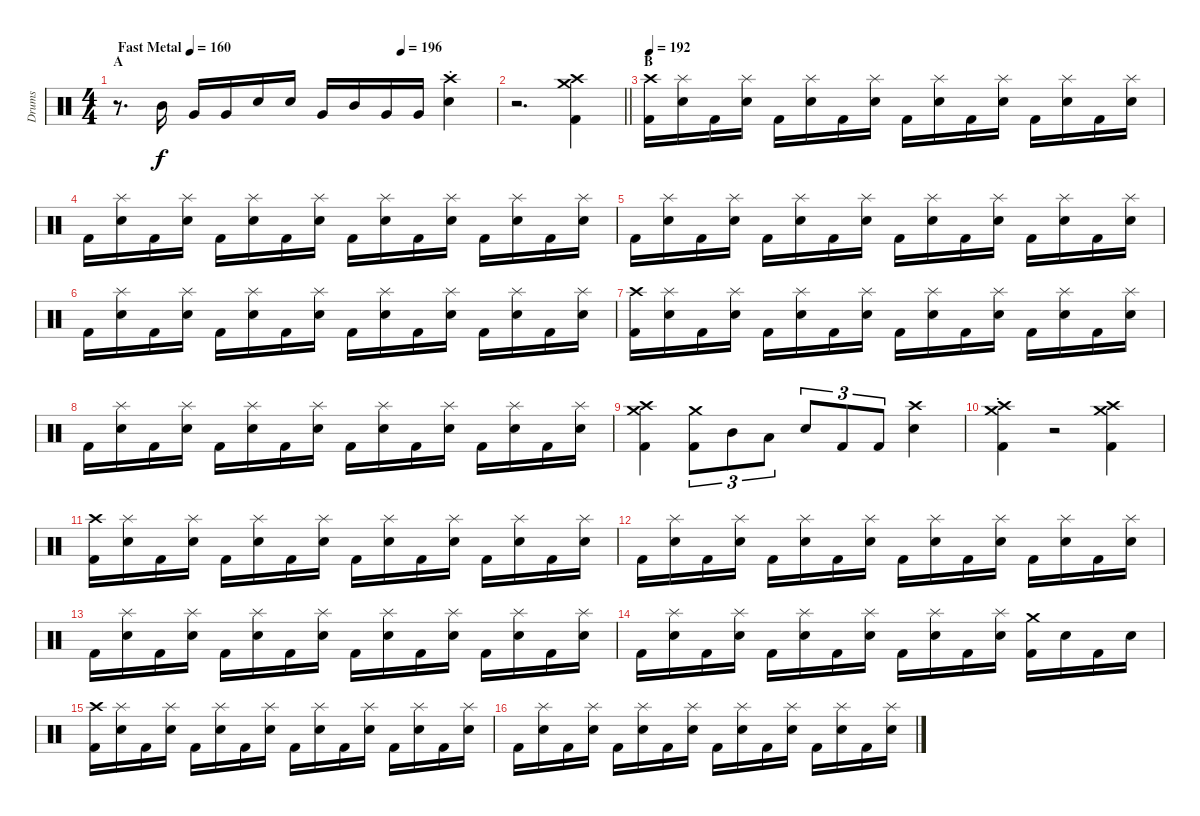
\track ("Drums" "Drums") {instrument percussion}
\staff {score}
\articulation defaults
\ts (4 4)
\section ("" "A")
\tempo (160 "Fast Metal")
\tempo (196 0.75)
\tempo (160 "Fast Metal")
\clef neutral
\ks c
r.8{d dy f} "Mid Tom (hit)".16 "Very Low Tom (hit)".16 "Very Low Tom (hit)".16 "Electric Snare (hit)".16 "Electric Snare (hit)".16 "Very Low Tom (hit)".16 "Mid Tom (hit)".16 "Very Low Tom (hit)".16 "Very Low Tom (hit)".16 ("Crash high (hit)"{st} "Electric Snare (hit)").4 |
\barLineRight lightlight
r.2{d volume 0} ("Crash medium (hit)" "Crash high (hit)" "Kick (hit) 2").4{volume 14} |
\section ("" "B")
\tempo 192
("Crash high (hit)" "Kick (hit) 2").16 ("Splash (hit)" "Electric Snare (hit)").16 "Kick (hit) 2".16 ("Splash (hit)" "Electric Snare (hit)").16 "Kick (hit) 2".16 ("Splash (hit)" "Electric Snare (hit)").16 "Kick (hit) 2".16 ("Splash (hit)" "Electric Snare (hit)").16 "Kick (hit) 2".16 ("Splash (hit)" "Electric Snare (hit)").16 "Kick (hit) 2".16 ("Splash (hit)" "Electric Snare (hit)").16 "Kick (hit) 2".16 ("Splash (hit)" "Electric Snare (hit)").16 "Kick (hit) 2".16 ("Splash (hit)" "Electric Snare (hit)").16 |
"Kick (hit) 2".16 ("Splash (hit)" "Electric Snare (hit)").16 "Kick (hit) 2".16 ("Splash (hit)" "Electric Snare (hit)").16 "Kick (hit) 2".16 ("Splash (hit)" "Electric Snare (hit)").16 "Kick (hit) 2".16 ("Splash (hit)" "Electric Snare (hit)").16 "Kick (hit) 2".16 ("Splash (hit)" "Electric Snare (hit)").16 "Kick (hit) 2".16 ("Splash (hit)" "Electric Snare (hit)").16 "Kick (hit) 2".16 ("Splash (hit)" "Electric Snare (hit)").16 "Kick (hit) 2".16 ("Splash (hit)" "Electric Snare (hit)").16 |
"Kick (hit) 2".16 ("Splash (hit)" "Electric Snare (hit)").16 "Kick (hit) 2".16 ("Splash (hit)" "Electric Snare (hit)").16 "Kick (hit) 2".16 ("Splash (hit)" "Electric Snare (hit)").16 "Kick (hit) 2".16 ("Splash (hit)" "Electric Snare (hit)").16 "Kick (hit) 2".16 ("Splash (hit)" "Electric Snare (hit)").16 "Kick (hit) 2".16 ("Splash (hit)" "Electric Snare (hit)").16 "Kick (hit) 2".16 ("Splash (hit)" "Electric Snare (hit)").16 "Kick (hit) 2".16 ("Splash (hit)" "Electric Snare (hit)").16 |
"Kick (hit) 2".16 ("Splash (hit)" "Electric Snare (hit)").16 "Kick (hit) 2".16 ("Splash (hit)" "Electric Snare (hit)").16 "Kick (hit) 2".16 ("Splash (hit)" "Electric Snare (hit)").16 "Kick (hit) 2".16 ("Splash (hit)" "Electric Snare (hit)").16 "Kick (hit) 2".16 ("Splash (hit)" "Electric Snare (hit)").16 "Kick (hit) 2".16 ("Splash (hit)" "Electric Snare (hit)").16 "Kick (hit) 2".16 ("Splash (hit)" "Electric Snare (hit)").16 "Kick (hit) 2".16 ("Splash (hit)" "Electric Snare (hit)").16 |
("Crash high (hit)" "Kick (hit) 2").16 ("Splash (hit)" "Electric Snare (hit)").16 "Kick (hit) 2".16 ("Splash (hit)" "Electric Snare (hit)").16 "Kick (hit) 2".16 ("Splash (hit)" "Electric Snare (hit)").16 "Kick (hit) 2".16 ("Splash (hit)" "Electric Snare (hit)").16 "Kick (hit) 2".16 ("Splash (hit)" "Electric Snare (hit)").16 "Kick (hit) 2".16 ("Splash (hit)" "Electric Snare (hit)").16 "Kick (hit) 2".16 ("Splash (hit)" "Electric Snare (hit)").16 "Kick (hit) 2".16 ("Splash (hit)" "Electric Snare (hit)").16 |
"Kick (hit) 2".16 ("Splash (hit)" "Electric Snare (hit)").16 "Kick (hit) 2".16 ("Splash (hit)" "Electric Snare (hit)").16 "Kick (hit) 2".16 ("Splash (hit)" "Electric Snare (hit)").16 "Kick (hit) 2".16 ("Splash (hit)" "Electric Snare (hit)").16 "Kick (hit) 2".16 ("Splash (hit)" "Electric Snare (hit)").16 "Kick (hit) 2".16 ("Splash (hit)" "Electric Snare (hit)").16 "Kick (hit) 2".16 ("Splash (hit)" "Electric Snare (hit)").16 "Kick (hit) 2".16 ("Splash (hit)" "Electric Snare (hit)").16 |
("Crash medium (hit)" "Crash high (hit)" "Kick (hit) 2").4 ("Crash medium (hit)" "Kick (hit) 2").8{tu (3 2)} "Mid Tom (hit)".8{tu (3 2)} "Low Tom (hit)".8{tu (3 2)} "Electric Snare (hit)".8{tu (3 2)} "Kick (hit) 2".8{tu (3 2)} "Kick (hit) 2".8{tu (3 2)} ("Crash high (hit)" "Electric Snare (hit)").4 |
("Crash medium (hit)"{st} "Crash high (hit)" "Kick (hit) 2").4 r.2{volume 0} ("Crash medium (hit)" "Crash high (hit)" "Kick (hit) 2").4{volume 14} |
("Crash high (hit)" "Kick (hit) 2").16 ("Splash (hit)" "Electric Snare (hit)").16 "Kick (hit) 2".16 ("Splash (hit)" "Electric Snare (hit)").16 "Kick (hit) 2".16 ("Splash (hit)" "Electric Snare (hit)").16 "Kick (hit) 2".16 ("Splash (hit)" "Electric Snare (hit)").16 "Kick (hit) 2".16 ("Splash (hit)" "Electric Snare (hit)").16 "Kick (hit) 2".16 ("Splash (hit)" "Electric Snare (hit)").16 "Kick (hit) 2".16 ("Splash (hit)" "Electric Snare (hit)").16 "Kick (hit) 2".16 ("Splash (hit)" "Electric Snare (hit)").16 |
"Kick (hit) 2".16 ("Splash (hit)" "Electric Snare (hit)").16 "Kick (hit) 2".16 ("Splash (hit)" "Electric Snare (hit)").16 "Kick (hit) 2".16 ("Splash (hit)" "Electric Snare (hit)").16 "Kick (hit) 2".16 ("Splash (hit)" "Electric Snare (hit)").16 "Kick (hit) 2".16 ("Splash (hit)" "Electric Snare (hit)").16 "Kick (hit) 2".16 ("Splash (hit)" "Electric Snare (hit)").16 "Kick (hit) 2".16 ("Splash (hit)" "Electric Snare (hit)").16 "Kick (hit) 2".16 ("Splash (hit)" "Electric Snare (hit)").16 |
"Kick (hit) 2".16 ("Splash (hit)" "Electric Snare (hit)").16 "Kick (hit) 2".16 ("Splash (hit)" "Electric Snare (hit)").16 "Kick (hit) 2".16 ("Splash (hit)" "Electric Snare (hit)").16 "Kick (hit) 2".16 ("Splash (hit)" "Electric Snare (hit)").16 "Kick (hit) 2".16 ("Splash (hit)" "Electric Snare (hit)").16 "Kick (hit) 2".16 ("Splash (hit)" "Electric Snare (hit)").16 "Kick (hit) 2".16 ("Splash (hit)" "Electric Snare (hit)").16 "Kick (hit) 2".16 ("Splash (hit)" "Electric Snare (hit)").16 |
"Kick (hit) 2".16 ("Splash (hit)" "Electric Snare (hit)").16 "Kick (hit) 2".16 ("Splash (hit)" "Electric Snare (hit)").16 "Kick (hit) 2".16 ("Splash (hit)" "Electric Snare (hit)").16 "Kick (hit) 2".16 ("Splash (hit)" "Electric Snare (hit)").16 "Kick (hit) 2".16 ("Splash (hit)" "Electric Snare (hit)").16 "Kick (hit) 2".16 ("Splash (hit)" "Electric Snare (hit)").16 ("Crash medium (hit)" "Kick (hit) 2").16 "Electric Snare (hit)".16 "Kick (hit) 2".16 "Electric Snare (hit)".16 |
("Crash high (hit)" "Kick (hit) 2").16 ("Splash (hit)" "Electric Snare (hit)").16 "Kick (hit) 2".16 ("Splash (hit)" "Electric Snare (hit)").16 "Kick (hit) 2".16 ("Splash (hit)" "Electric Snare (hit)").16 "Kick (hit) 2".16 ("Splash (hit)" "Electric Snare (hit)").16 "Kick (hit) 2".16 ("Splash (hit)" "Electric Snare (hit)").16 "Kick (hit) 2".16 ("Splash (hit)" "Electric Snare (hit)").16 "Kick (hit) 2".16 ("Splash (hit)" "Electric Snare (hit)").16 "Kick (hit) 2".16 ("Splash (hit)" "Electric Snare (hit)").16 |
"Kick (hit) 2".16 ("Splash (hit)" "Electric Snare (hit)").16 "Kick (hit) 2".16 ("Splash (hit)" "Electric Snare (hit)").16 "Kick (hit) 2".16 ("Splash (hit)" "Electric Snare (hit)").16 "Kick (hit) 2".16 ("Splash (hit)" "Electric Snare (hit)").16 "Kick (hit) 2".16 ("Splash (hit)" "Electric Snare (hit)").16 "Kick (hit) 2".16 ("Splash (hit)" "Electric Snare (hit)").16 "Kick (hit) 2".16 ("Splash (hit)" "Electric Snare (hit)").16 "Kick (hit) 2".16 ("Splash (hit)" "Electric Snare (hit)").16
